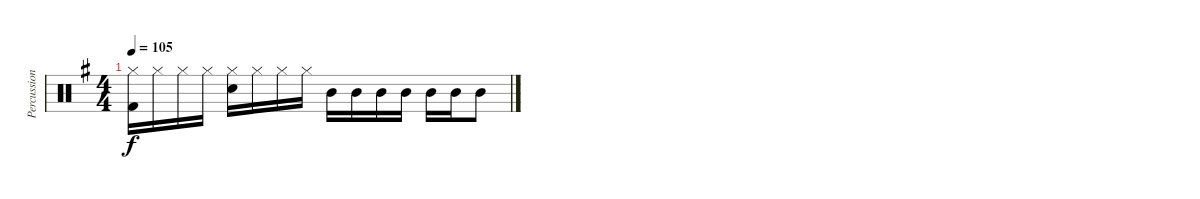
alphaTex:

\track ("Percussion" "Percussion") {instrument percussion}
\staff {score}
\articulation defaults
\ts (4 4)
\tempo 105
\clef neutral
\ks g
("Hi-Hat (closed)" "Kick (hit) 2").16{dy f} "Hi-Hat (closed)".16 "Hi-Hat (closed)".16 "Hi-Hat (closed)".16 ("Hi-Hat (closed)" "Snare (hit) 2").16 "Hi-Hat (closed)".16 "Hi-Hat (closed)".16 "Hi-Hat (closed)".16 "Mid Tom (hit)".16 "Mid Tom (hit)".16 "Mid Tom (hit)".16 "Mid Tom (hit)".16 "Mid Tom (hit)".16 "Mid Tom (hit)".16 "Mid Tom (hit)".8
